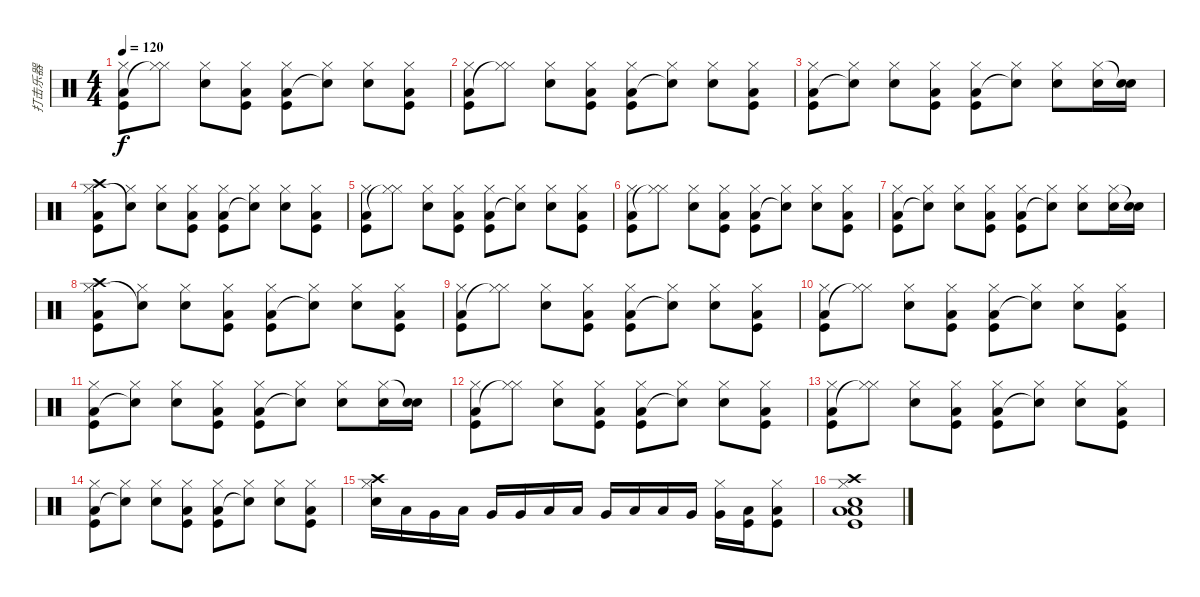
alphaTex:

\track ("打击乐器" "打击乐器") {instrument percussion}
\staff {score}
\articulation defaults
\ts (4 4)
\tempo 120
\clef neutral
\ks c
("Hi-Hat (closed)" "Low Floor Tom (hit)" "Kick (hit)").8{dy f} ("Hi-Hat (closed)" "Hi-Hat (closed)"{t}).8 ("Hi-Hat (closed)" "Electric Snare (hit)").8 ("Hi-Hat (closed)" "Low Floor Tom (hit)" "Kick (hit)").8 ("Hi-Hat (closed)" "Low Floor Tom (hit)" "Kick (hit)").8 ("Hi-Hat (closed)" "Snare (hit)"{t}).8 ("Hi-Hat (closed)" "Electric Snare (hit)").8 ("Hi-Hat (closed)" "Low Floor Tom (hit)" "Kick (hit)").8 |
("Hi-Hat (closed)" "Low Floor Tom (hit)" "Kick (hit)").8 ("Hi-Hat (closed)" "Hi-Hat (closed)"{t}).8 ("Hi-Hat (closed)" "Electric Snare (hit)").8 ("Hi-Hat (closed)" "Low Floor Tom (hit)" "Kick (hit)").8 ("Hi-Hat (closed)" "Low Floor Tom (hit)" "Kick (hit)").8 ("Hi-Hat (closed)" "Snare (hit)"{t}).8 ("Hi-Hat (closed)" "Electric Snare (hit)").8 ("Hi-Hat (closed)" "Low Floor Tom (hit)" "Kick (hit)").8 |
("Hi-Hat (closed)" "Low Floor Tom (hit)" "Kick (hit)").8 ("Hi-Hat (closed)" "Snare (hit)"{t}).8 ("Hi-Hat (closed)" "Electric Snare (hit)").8 ("Hi-Hat (closed)" "Low Floor Tom (hit)" "Kick (hit)").8 ("Hi-Hat (closed)" "Low Floor Tom (hit)" "Kick (hit)").8 ("Hi-Hat (closed)" "Snare (hit)"{t}).8 ("Hi-Hat (closed)" "Electric Snare (hit)").8 ("Hi-Hat (closed)" "Electric Snare (hit)").16 ("Snare (hit)"{t} "Electric Snare (hit)").16 |
("Crash high (hit)" "Hi-Hat (closed)" "Low Floor Tom (hit)" "Kick (hit)").8 ("Hi-Hat (closed)" "Snare (hit)"{t}).8 ("Hi-Hat (closed)" "Electric Snare (hit)").8 ("Hi-Hat (closed)" "Low Floor Tom (hit)" "Kick (hit)").8 ("Hi-Hat (closed)" "Low Floor Tom (hit)" "Kick (hit)").8 ("Hi-Hat (closed)" "Snare (hit)"{t}).8 ("Hi-Hat (closed)" "Electric Snare (hit)").8 ("Hi-Hat (closed)" "Low Floor Tom (hit)" "Kick (hit)").8 |
("Hi-Hat (closed)" "Low Floor Tom (hit)" "Kick (hit)").8 ("Hi-Hat (closed)" "Hi-Hat (closed)"{t}).8 ("Hi-Hat (closed)" "Electric Snare (hit)").8 ("Hi-Hat (closed)" "Low Floor Tom (hit)" "Kick (hit)").8 ("Hi-Hat (closed)" "Low Floor Tom (hit)" "Kick (hit)").8 ("Hi-Hat (closed)" "Snare (hit)"{t}).8 ("Hi-Hat (closed)" "Electric Snare (hit)").8 ("Hi-Hat (closed)" "Low Floor Tom (hit)" "Kick (hit)").8 |
("Hi-Hat (closed)" "Low Floor Tom (hit)" "Kick (hit)").8 ("Hi-Hat (closed)" "Hi-Hat (closed)"{t}).8 ("Hi-Hat (closed)" "Electric Snare (hit)").8 ("Hi-Hat (closed)" "Low Floor Tom (hit)" "Kick (hit)").8 ("Hi-Hat (closed)" "Low Floor Tom (hit)" "Kick (hit)").8 ("Hi-Hat (closed)" "Snare (hit)"{t}).8 ("Hi-Hat (closed)" "Electric Snare (hit)").8 ("Hi-Hat (closed)" "Low Floor Tom (hit)" "Kick (hit)").8 |
("Hi-Hat (closed)" "Low Floor Tom (hit)" "Kick (hit)").8 ("Hi-Hat (closed)" "Snare (hit)"{t}).8 ("Hi-Hat (closed)" "Electric Snare (hit)").8 ("Hi-Hat (closed)" "Low Floor Tom (hit)" "Kick (hit)").8 ("Hi-Hat (closed)" "Low Floor Tom (hit)" "Kick (hit)").8 ("Hi-Hat (closed)" "Snare (hit)"{t}).8 ("Hi-Hat (closed)" "Electric Snare (hit)").8 ("Hi-Hat (closed)" "Electric Snare (hit)").16 ("Snare (hit)"{t} "Electric Snare (hit)").16 |
("Crash high (hit)" "Hi-Hat (closed)" "Low Floor Tom (hit)" "Kick (hit)").8 ("Hi-Hat (closed)" "Snare (hit)"{t}).8 ("Hi-Hat (closed)" "Electric Snare (hit)").8 ("Hi-Hat (closed)" "Low Floor Tom (hit)" "Kick (hit)").8 ("Hi-Hat (closed)" "Low Floor Tom (hit)" "Kick (hit)").8 ("Hi-Hat (closed)" "Snare (hit)"{t}).8 ("Hi-Hat (closed)" "Electric Snare (hit)").8 ("Hi-Hat (closed)" "Low Floor Tom (hit)" "Kick (hit)").8 |
("Hi-Hat (closed)" "Low Floor Tom (hit)" "Kick (hit)").8 ("Hi-Hat (closed)" "Hi-Hat (closed)"{t}).8 ("Hi-Hat (closed)" "Electric Snare (hit)").8 ("Hi-Hat (closed)" "Low Floor Tom (hit)" "Kick (hit)").8 ("Hi-Hat (closed)" "Low Floor Tom (hit)" "Kick (hit)").8 ("Hi-Hat (closed)" "Snare (hit)"{t}).8 ("Hi-Hat (closed)" "Electric Snare (hit)").8 ("Hi-Hat (closed)" "Low Floor Tom (hit)" "Kick (hit)").8 |
("Hi-Hat (closed)" "Low Floor Tom (hit)" "Kick (hit)").8 ("Hi-Hat (closed)" "Hi-Hat (closed)"{t}).8 ("Hi-Hat (closed)" "Electric Snare (hit)").8 ("Hi-Hat (closed)" "Low Floor Tom (hit)" "Kick (hit)").8 ("Hi-Hat (closed)" "Low Floor Tom (hit)" "Kick (hit)").8 ("Hi-Hat (closed)" "Snare (hit)"{t}).8 ("Hi-Hat (closed)" "Electric Snare (hit)").8 ("Hi-Hat (closed)" "Low Floor Tom (hit)" "Kick (hit)").8 |
("Hi-Hat (closed)" "Low Floor Tom (hit)" "Kick (hit)").8 ("Hi-Hat (closed)" "Snare (hit)"{t}).8 ("Hi-Hat (closed)" "Electric Snare (hit)").8 ("Hi-Hat (closed)" "Low Floor Tom (hit)" "Kick (hit)").8 ("Hi-Hat (closed)" "Low Floor Tom (hit)" "Kick (hit)").8 ("Hi-Hat (closed)" "Snare (hit)"{t}).8 ("Hi-Hat (closed)" "Electric Snare (hit)").8 ("Hi-Hat (closed)" "Electric Snare (hit)").16 ("Snare (hit)"{t} "Electric Snare (hit)").16 |
("Hi-Hat (closed)" "Low Floor Tom (hit)" "Kick (hit)").8 ("Hi-Hat (closed)" "Hi-Hat (closed)"{t}).8 ("Hi-Hat (closed)" "Electric Snare (hit)").8 ("Hi-Hat (closed)" "Low Floor Tom (hit)" "Kick (hit)").8 ("Hi-Hat (closed)" "Low Floor Tom (hit)" "Kick (hit)").8 ("Hi-Hat (closed)" "Snare (hit)"{t}).8 ("Hi-Hat (closed)" "Electric Snare (hit)").8 ("Hi-Hat (closed)" "Low Floor Tom (hit)" "Kick (hit)").8 |
("Hi-Hat (closed)" "Low Floor Tom (hit)" "Kick (hit)").8 ("Hi-Hat (closed)" "Hi-Hat (closed)"{t}).8 ("Hi-Hat (closed)" "Electric Snare (hit)").8 ("Hi-Hat (closed)" "Low Floor Tom (hit)" "Kick (hit)").8 ("Hi-Hat (closed)" "Low Floor Tom (hit)" "Kick (hit)").8 ("Hi-Hat (closed)" "Snare (hit)"{t}).8 ("Hi-Hat (closed)" "Electric Snare (hit)").8 ("Hi-Hat (closed)" "Low Floor Tom (hit)" "Kick (hit)").8 |
("Hi-Hat (closed)" "Low Floor Tom (hit)" "Kick (hit)").8 ("Hi-Hat (closed)" "Snare (hit)"{t}).8 ("Hi-Hat (closed)" "Electric Snare (hit)").8 ("Hi-Hat (closed)" "Low Floor Tom (hit)" "Kick (hit)").8 ("Hi-Hat (closed)" "Low Floor Tom (hit)" "Kick (hit)").8 ("Hi-Hat (closed)" "Snare (hit)"{t}).8 ("Hi-Hat (closed)" "Electric Snare (hit)").8 ("Hi-Hat (closed)" "Low Floor Tom (hit)" "Kick (hit)").8 |
("Crash high (hit)" "Hi-Hat (closed)" "Electric Snare (hit)").16 "Low Tom (hit)".16 "Very Low Tom (hit)".16 "Low Floor Tom (hit)".16 "Very Low Tom (hit)".16 "Very Low Tom (hit)".16 "Low Tom (hit)".16 "Low Tom (hit)".16 "Very Low Tom (hit)".16 "Low Floor Tom (hit)".16 "Low Tom (hit)".16 "Very Low Tom (hit)".16 ("Hi-Hat (closed)" "Very Low Tom (hit)").16 ("Low Floor Tom (hit)" "Kick (hit)").16 ("Hi-Hat (closed)" "Low Floor Tom (hit)" "Kick (hit)").8 |
("Kick (hit)" "Crash high (hit)" "Hi-Hat (closed)" "Low Floor Tom (hit)" "Electric Snare (hit)" "Low Tom (hit)").1
